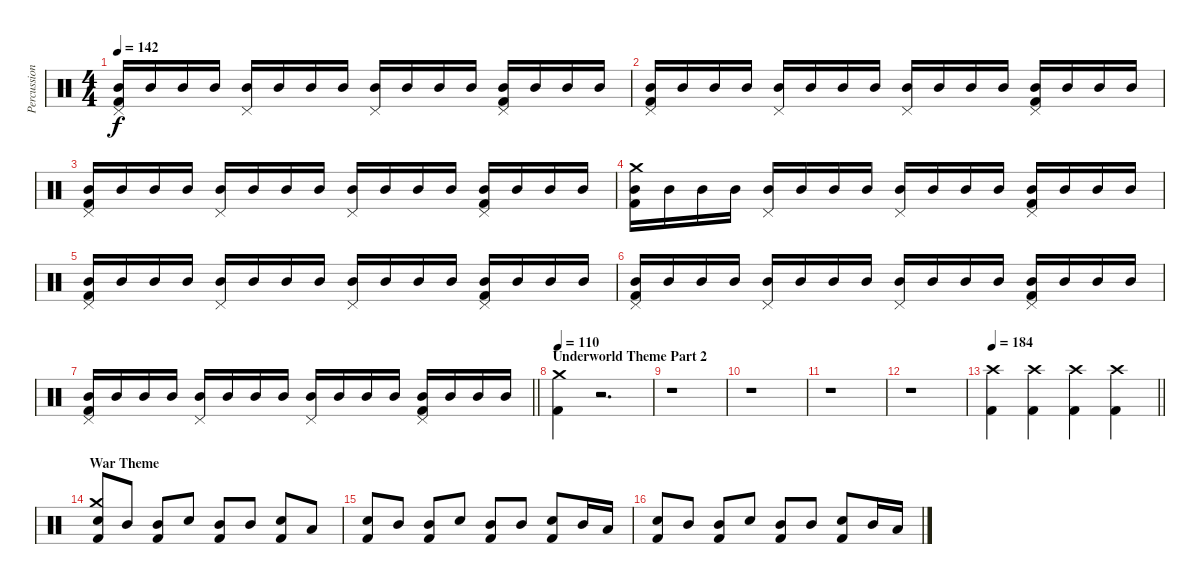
\track ("Percussion" "Percussion") {instrument percussion}
\staff {score}
\articulation defaults
\ts (4 4)
\tempo 142
\clef neutral
\ks c
("Pedal Hi-Hat (hit)" "Mid Tom (hit)" "Kick (hit) 2").16{dy f} "Mid Tom (hit)".16 "Mid Tom (hit)".16 "Mid Tom (hit)".16 ("Pedal Hi-Hat (hit)" "Mid Tom (hit)").16 "Mid Tom (hit)".16 "Mid Tom (hit)".16 "Mid Tom (hit)".16 ("Pedal Hi-Hat (hit)" "Mid Tom (hit)").16 "Mid Tom (hit)".16 "Mid Tom (hit)".16 "Mid Tom (hit)".16 ("Pedal Hi-Hat (hit)" "Mid Tom (hit)" "Kick (hit) 2").16 "Mid Tom (hit)".16 "Mid Tom (hit)".16 "Mid Tom (hit)".16 |
("Pedal Hi-Hat (hit)" "Mid Tom (hit)" "Kick (hit) 2").16 "Mid Tom (hit)".16 "Mid Tom (hit)".16 "Mid Tom (hit)".16 ("Pedal Hi-Hat (hit)" "Mid Tom (hit)").16 "Mid Tom (hit)".16 "Mid Tom (hit)".16 "Mid Tom (hit)".16 ("Pedal Hi-Hat (hit)" "Mid Tom (hit)").16 "Mid Tom (hit)".16 "Mid Tom (hit)".16 "Mid Tom (hit)".16 ("Pedal Hi-Hat (hit)" "Mid Tom (hit)" "Kick (hit) 2").16 "Mid Tom (hit)".16 "Mid Tom (hit)".16 "Mid Tom (hit)".16 |
("Pedal Hi-Hat (hit)" "Mid Tom (hit)" "Kick (hit) 2").16 "Mid Tom (hit)".16 "Mid Tom (hit)".16 "Mid Tom (hit)".16 ("Pedal Hi-Hat (hit)" "Mid Tom (hit)").16 "Mid Tom (hit)".16 "Mid Tom (hit)".16 "Mid Tom (hit)".16 ("Pedal Hi-Hat (hit)" "Mid Tom (hit)").16 "Mid Tom (hit)".16 "Mid Tom (hit)".16 "Mid Tom (hit)".16 ("Pedal Hi-Hat (hit)" "Mid Tom (hit)" "Kick (hit) 2").16 "Mid Tom (hit)".16 "Mid Tom (hit)".16 "Mid Tom (hit)".16 |
("Crash medium (hit)" "Mid Tom (hit)" "Kick (hit) 2").16 "Mid Tom (hit)".16 "Mid Tom (hit)".16 "Mid Tom (hit)".16 ("Pedal Hi-Hat (hit)" "Mid Tom (hit)").16 "Mid Tom (hit)".16 "Mid Tom (hit)".16 "Mid Tom (hit)".16 ("Pedal Hi-Hat (hit)" "Mid Tom (hit)").16 "Mid Tom (hit)".16 "Mid Tom (hit)".16 "Mid Tom (hit)".16 ("Pedal Hi-Hat (hit)" "Mid Tom (hit)" "Kick (hit) 2").16 "Mid Tom (hit)".16 "Mid Tom (hit)".16 "Mid Tom (hit)".16 |
("Pedal Hi-Hat (hit)" "Mid Tom (hit)" "Kick (hit) 2").16 "Mid Tom (hit)".16 "Mid Tom (hit)".16 "Mid Tom (hit)".16 ("Pedal Hi-Hat (hit)" "Mid Tom (hit)").16 "Mid Tom (hit)".16 "Mid Tom (hit)".16 "Mid Tom (hit)".16 ("Pedal Hi-Hat (hit)" "Mid Tom (hit)").16 "Mid Tom (hit)".16 "Mid Tom (hit)".16 "Mid Tom (hit)".16 ("Pedal Hi-Hat (hit)" "Mid Tom (hit)" "Kick (hit) 2").16 "Mid Tom (hit)".16 "Mid Tom (hit)".16 "Mid Tom (hit)".16 |
("Pedal Hi-Hat (hit)" "Mid Tom (hit)" "Kick (hit) 2").16 "Mid Tom (hit)".16 "Mid Tom (hit)".16 "Mid Tom (hit)".16 ("Pedal Hi-Hat (hit)" "Mid Tom (hit)").16 "Mid Tom (hit)".16 "Mid Tom (hit)".16 "Mid Tom (hit)".16 ("Pedal Hi-Hat (hit)" "Mid Tom (hit)").16 "Mid Tom (hit)".16 "Mid Tom (hit)".16 "Mid Tom (hit)".16 ("Pedal Hi-Hat (hit)" "Mid Tom (hit)" "Kick (hit) 2").16 "Mid Tom (hit)".16 "Mid Tom (hit)".16 "Mid Tom (hit)".16 |
\barLineRight lightlight
("Pedal Hi-Hat (hit)" "Mid Tom (hit)" "Kick (hit) 2").16 "Mid Tom (hit)".16 "Mid Tom (hit)".16 "Mid Tom (hit)".16 ("Pedal Hi-Hat (hit)" "Mid Tom (hit)").16 "Mid Tom (hit)".16 "Mid Tom (hit)".16 "Mid Tom (hit)".16 ("Pedal Hi-Hat (hit)" "Mid Tom (hit)").16 "Mid Tom (hit)".16 "Mid Tom (hit)".16 "Mid Tom (hit)".16 ("Pedal Hi-Hat (hit)" "Mid Tom (hit)" "Kick (hit) 2").16 "Mid Tom (hit)".16 "Mid Tom (hit)".16 "Mid Tom (hit)".16 |
\section ("" "Underworld Theme Part 2")
\tempo 110
("Crash medium (hit)" "Kick (hit) 2").4 r.2{d} |
r.1 |
r.1 |
r.1 |
r.1 |
\tempo 184
\barLineRight lightlight
("Crash high (hit)" "Kick (hit) 2").4 ("Crash high (hit)" "Kick (hit) 2").4 ("Crash high (hit)" "Kick (hit) 2").4 ("Crash high (hit)" "Kick (hit) 2").4 |
\section ("" "War Theme")
("Crash medium (hit)" "Electric Snare (hit)" "Kick (hit) 2").8 "Mid Tom (hit)".8 ("Mid Tom (hit)" "Kick (hit) 2").8 "Electric Snare (hit)".8 ("Mid Tom (hit)" "Kick (hit) 2").8 "Mid Tom (hit)".8 ("Electric Snare (hit)" "Kick (hit) 2").8 "Low Tom (hit)".8 |
("Electric Snare (hit)" "Kick (hit) 2").8 "Mid Tom (hit)".8 ("Mid Tom (hit)" "Kick (hit) 2").8 "Electric Snare (hit)".8 ("Mid Tom (hit)" "Kick (hit) 2").8 "Mid Tom (hit)".8 ("Electric Snare (hit)" "Kick (hit) 2").8 "Mid Tom (hit)".16 "Low Tom (hit)".16 |
("Electric Snare (hit)" "Kick (hit) 2").8 "Mid Tom (hit)".8 ("Mid Tom (hit)" "Kick (hit) 2").8 "Electric Snare (hit)".8 ("Mid Tom (hit)" "Kick (hit) 2").8 "Mid Tom (hit)".8 ("Electric Snare (hit)" "Kick (hit) 2").8 "Mid Tom (hit)".16 "Low Tom (hit)".16
